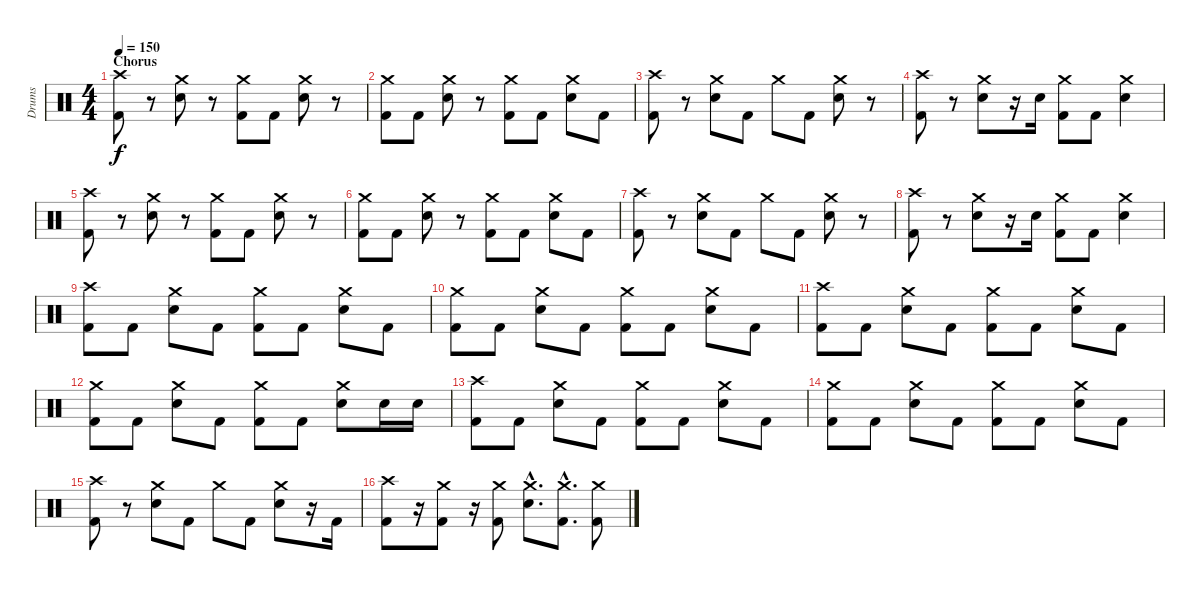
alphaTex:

\track ("Drums" "Drums") {instrument percussion}
\staff {score}
\articulation defaults
\ts (4 4)
\section ("" "Chorus")
\tempo 150
\clef neutral
\ks c
("Crash high (hit)" "Kick (hit) 2").8{dy f} r.8 ("Crash medium (hit)" "Electric Snare (hit)").8 r.8 ("Crash medium (hit)" "Kick (hit) 2").8 "Kick (hit) 2".8 ("Crash medium (hit)" "Electric Snare (hit)").8 r.8 |
("Crash medium (hit)" "Kick (hit) 2").8 "Kick (hit) 2".8 ("Crash medium (hit)" "Electric Snare (hit)").8 r.8 ("Crash medium (hit)" "Kick (hit) 2").8 "Kick (hit) 2".8 ("Crash medium (hit)" "Electric Snare (hit)").8 "Kick (hit) 2".8 |
("Crash high (hit)" "Kick (hit) 2").8 r.8 ("Crash medium (hit)" "Electric Snare (hit)").8 "Kick (hit) 2".8 "Crash medium (hit)".8 "Kick (hit) 2".8 ("Crash medium (hit)" "Electric Snare (hit)").8 r.8 |
("Crash high (hit)" "Kick (hit) 2").8 r.8 ("Crash medium (hit)" "Electric Snare (hit)").8 r.16 "Electric Snare (hit)".16 ("Crash medium (hit)" "Kick (hit) 2").8 "Kick (hit) 2".8 ("Crash medium (hit)" "Electric Snare (hit)").4 |
("Crash high (hit)" "Kick (hit) 2").8 r.8 ("Crash medium (hit)" "Electric Snare (hit)").8 r.8 ("Crash medium (hit)" "Kick (hit) 2").8 "Kick (hit) 2".8 ("Crash medium (hit)" "Electric Snare (hit)").8 r.8 |
("Crash medium (hit)" "Kick (hit) 2").8 "Kick (hit) 2".8 ("Crash medium (hit)" "Electric Snare (hit)").8 r.8 ("Crash medium (hit)" "Kick (hit) 2").8 "Kick (hit) 2".8 ("Crash medium (hit)" "Electric Snare (hit)").8 "Kick (hit) 2".8 |
("Crash high (hit)" "Kick (hit) 2").8 r.8 ("Crash medium (hit)" "Electric Snare (hit)").8 "Kick (hit) 2".8 "Crash medium (hit)".8 "Kick (hit) 2".8 ("Crash medium (hit)" "Electric Snare (hit)").8 r.8 |
("Crash high (hit)" "Kick (hit) 2").8 r.8 ("Crash medium (hit)" "Electric Snare (hit)").8 r.16 "Electric Snare (hit)".16 ("Crash medium (hit)" "Kick (hit) 2").8 "Kick (hit) 2".8 ("Crash medium (hit)" "Electric Snare (hit)").4 |
("Crash high (hit)" "Kick (hit) 2").8 "Kick (hit) 2".8 ("Crash medium (hit)" "Electric Snare (hit)").8 "Kick (hit) 2".8 ("Crash medium (hit)" "Kick (hit) 2").8 "Kick (hit) 2".8 ("Crash medium (hit)" "Electric Snare (hit)").8 "Kick (hit) 2".8 |
("Crash medium (hit)" "Kick (hit) 2").8 "Kick (hit) 2".8 ("Crash medium (hit)" "Electric Snare (hit)").8 "Kick (hit) 2".8 ("Crash medium (hit)" "Kick (hit) 2").8 "Kick (hit) 2".8 ("Crash medium (hit)" "Electric Snare (hit)").8 "Kick (hit) 2".8 |
("Crash high (hit)" "Kick (hit) 2").8 "Kick (hit) 2".8 ("Crash medium (hit)" "Electric Snare (hit)").8 "Kick (hit) 2".8 ("Crash medium (hit)" "Kick (hit) 2").8 "Kick (hit) 2".8 ("Crash medium (hit)" "Electric Snare (hit)").8 "Kick (hit) 2".8 |
("Crash medium (hit)" "Kick (hit) 2").8 "Kick (hit) 2".8 ("Crash medium (hit)" "Electric Snare (hit)").8 "Kick (hit) 2".8 ("Crash medium (hit)" "Kick (hit) 2").8 "Kick (hit) 2".8 ("Crash medium (hit)" "Electric Snare (hit)").8 "Electric Snare (hit)".16 "Electric Snare (hit)".16 |
("Crash high (hit)" "Kick (hit) 2").8 "Kick (hit) 2".8 ("Crash medium (hit)" "Electric Snare (hit)").8 "Kick (hit) 2".8 ("Crash medium (hit)" "Kick (hit) 2").8 "Kick (hit) 2".8 ("Crash medium (hit)" "Electric Snare (hit)").8 "Kick (hit) 2".8 |
("Crash medium (hit)" "Kick (hit) 2").8 "Kick (hit) 2".8 ("Crash medium (hit)" "Electric Snare (hit)").8 "Kick (hit) 2".8 ("Crash medium (hit)" "Kick (hit) 2").8 "Kick (hit) 2".8 ("Crash medium (hit)" "Electric Snare (hit)").8 "Kick (hit) 2".8 |
("Crash high (hit)" "Kick (hit) 2").8 r.8 ("Crash medium (hit)" "Electric Snare (hit)").8 "Kick (hit) 2".8 "Crash medium (hit)".8 "Kick (hit) 2".8 ("Crash medium (hit)" "Electric Snare (hit)").8 r.16 "Kick (hit) 2".16 |
("Crash high (hit)" "Kick (hit) 2").8 r.16 ("Crash medium (hit)" "Kick (hit) 2").8 r.16 ("Crash medium (hit)" "Kick (hit) 2").8 ("Crash medium (hit)"{hac} "Electric Snare (hit)"{hac}).8{d} ("Crash medium (hit)"{hac} "Kick (hit) 2"{hac}).8{d} ("Crash medium (hit)" "Kick (hit) 2").8
